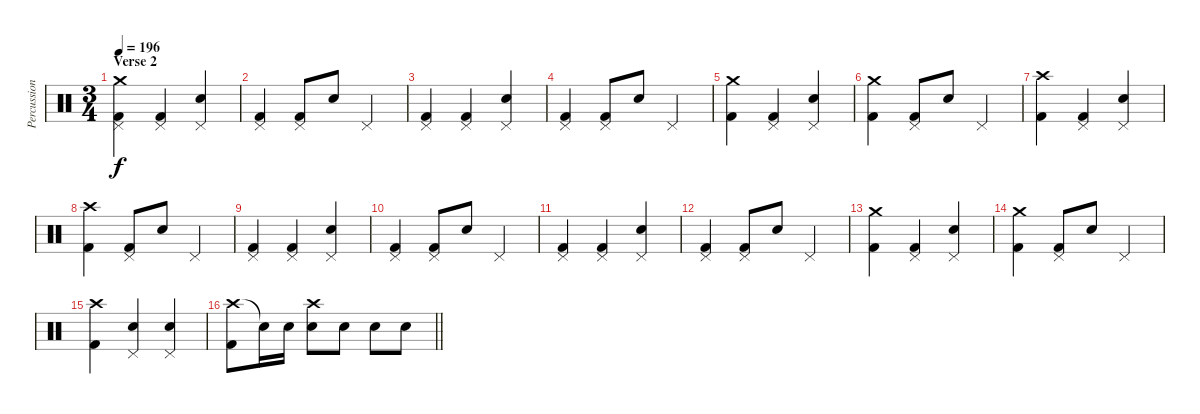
\track ("Percussion" "Percussion") {instrument percussion}
\staff {score}
\articulation defaults
\ts (3 4)
\section ("" "Verse 2")
\tempo 196
\clef neutral
\ks c
("Crash medium (hit)" "Pedal Hi-Hat (hit)" "Kick (hit) 2").4{dy f} ("Pedal Hi-Hat (hit)" "Kick (hit) 2").4 ("Pedal Hi-Hat (hit)" "Electric Snare (hit)").4 |
("Pedal Hi-Hat (hit)" "Kick (hit) 2").4 ("Pedal Hi-Hat (hit)" "Kick (hit) 2").8 "Electric Snare (hit)".8 "Pedal Hi-Hat (hit)".4 |
("Pedal Hi-Hat (hit)" "Kick (hit) 2").4 ("Pedal Hi-Hat (hit)" "Kick (hit) 2").4 ("Pedal Hi-Hat (hit)" "Electric Snare (hit)").4 |
("Pedal Hi-Hat (hit)" "Kick (hit) 2").4 ("Pedal Hi-Hat (hit)" "Kick (hit) 2").8 "Electric Snare (hit)".8 "Pedal Hi-Hat (hit)".4 |
("Crash medium (hit)" "Kick (hit) 2").4 ("Pedal Hi-Hat (hit)" "Kick (hit) 2").4 ("Pedal Hi-Hat (hit)" "Electric Snare (hit)").4 |
("Crash medium (hit)" "Kick (hit) 2").4 ("Pedal Hi-Hat (hit)" "Kick (hit) 2").8 "Electric Snare (hit)".8 "Pedal Hi-Hat (hit)".4 |
("Crash high (hit)" "Kick (hit) 2").4 ("Pedal Hi-Hat (hit)" "Kick (hit) 2").4 ("Pedal Hi-Hat (hit)" "Electric Snare (hit)").4 |
("Crash high (hit)" "Kick (hit) 2").4 ("Pedal Hi-Hat (hit)" "Kick (hit) 2").8 "Electric Snare (hit)".8 "Pedal Hi-Hat (hit)".4 |
("Pedal Hi-Hat (hit)" "Kick (hit) 2").4 ("Pedal Hi-Hat (hit)" "Kick (hit) 2").4 ("Pedal Hi-Hat (hit)" "Electric Snare (hit)").4 |
("Pedal Hi-Hat (hit)" "Kick (hit) 2").4 ("Pedal Hi-Hat (hit)" "Kick (hit) 2").8 "Electric Snare (hit)".8 "Pedal Hi-Hat (hit)".4 |
("Pedal Hi-Hat (hit)" "Kick (hit) 2").4 ("Pedal Hi-Hat (hit)" "Kick (hit) 2").4 ("Pedal Hi-Hat (hit)" "Electric Snare (hit)").4 |
("Pedal Hi-Hat (hit)" "Kick (hit) 2").4 ("Pedal Hi-Hat (hit)" "Kick (hit) 2").8 "Electric Snare (hit)".8 "Pedal Hi-Hat (hit)".4 |
("Crash medium (hit)" "Kick (hit) 2").4 ("Pedal Hi-Hat (hit)" "Kick (hit) 2").4 ("Pedal Hi-Hat (hit)" "Electric Snare (hit)").4 |
("Crash medium (hit)" "Kick (hit) 2").4 ("Pedal Hi-Hat (hit)" "Kick (hit) 2").8 "Electric Snare (hit)".8 "Pedal Hi-Hat (hit)".4 |
("Crash high (hit)" "Kick (hit) 2").4 ("Pedal Hi-Hat (hit)" "Electric Snare (hit)").4 ("Pedal Hi-Hat (hit)" "Electric Snare (hit)").4 |
\barLineRight lightlight
("Crash high (hit)" "Kick (hit) 2").8 "Snare (hit)"{t}.16 "Electric Snare (hit)".16 ("Crash high (hit)" "Electric Snare (hit)").8 "Electric Snare (hit)".8 "Electric Snare (hit)".8 "Electric Snare (hit)".8
